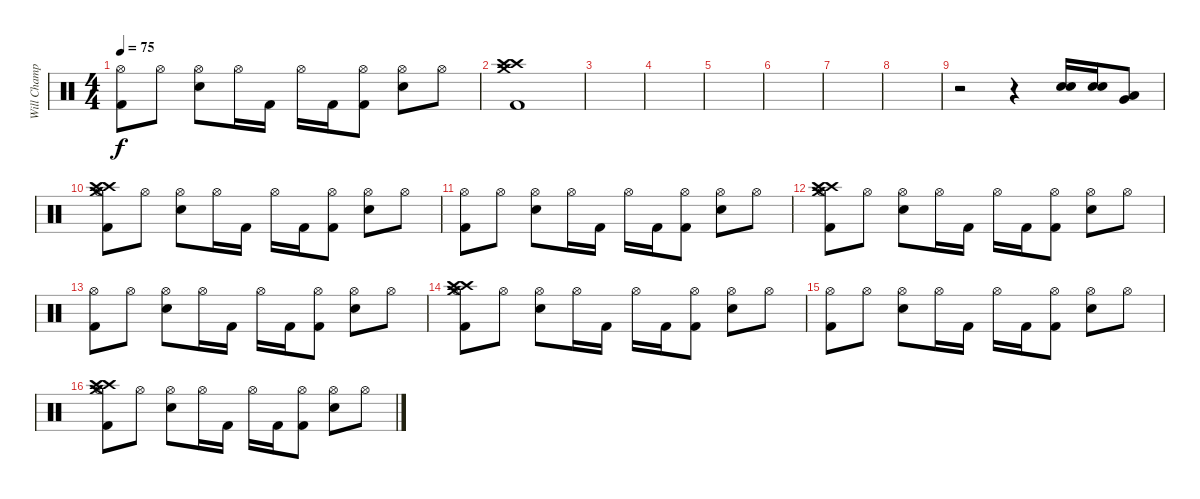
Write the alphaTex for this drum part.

\track ("Will Champion(Drums)" "Will Champ") {instrument percussion}
\staff {score}
\articulation defaults
\ts (4 4)
\tempo 75
\clef neutral
\ks c
("Hi-Hat (open)" "Kick (hit) 2").8{dy f} "Hi-Hat (open)".8 ("Hi-Hat (open)" "Electric Snare (hit)").8 "Hi-Hat (open)".16 "Kick (hit) 2".16 "Hi-Hat (open)".16 "Kick (hit) 2".16 ("Hi-Hat (open)" "Kick (hit) 2").8 ("Hi-Hat (open)" "Electric Snare (hit)").8 "Hi-Hat (open)".8 |
("Crash high (hit)" "Crash high (hit)" "Crash medium (hit)" "Kick (hit) 2").1 |
|
|
|
|
|
|
r.2 r.4 ("Electric Snare (hit)" "Electric Snare (hit)").16 ("Electric Snare (hit)" "Electric Snare (hit)").16 ("Low Tom (hit)" "Very Low Tom (hit)").8 |
("Crash high (hit)" "Crash medium (hit)" "Crash high (hit)" "Hi-Hat (open)" "Kick (hit) 2").8 "Hi-Hat (open)".8 ("Hi-Hat (open)" "Electric Snare (hit)").8 "Hi-Hat (open)".16 "Kick (hit) 2".16 "Hi-Hat (open)".16 "Kick (hit) 2".16 ("Hi-Hat (open)" "Kick (hit) 2").8 ("Hi-Hat (open)" "Electric Snare (hit)").8 "Hi-Hat (open)".8 |
("Hi-Hat (open)" "Kick (hit) 2").8 "Hi-Hat (open)".8 ("Hi-Hat (open)" "Electric Snare (hit)").8 "Hi-Hat (open)".16 "Kick (hit) 2".16 "Hi-Hat (open)".16 "Kick (hit) 2".16 ("Hi-Hat (open)" "Kick (hit) 2").8 ("Hi-Hat (open)" "Electric Snare (hit)").8 "Hi-Hat (open)".8 |
("Crash high (hit)" "Crash medium (hit)" "Crash high (hit)" "Hi-Hat (open)" "Kick (hit) 2").8 "Hi-Hat (open)".8 ("Hi-Hat (open)" "Electric Snare (hit)").8 "Hi-Hat (open)".16 "Kick (hit) 2".16 "Hi-Hat (open)".16 "Kick (hit) 2".16 ("Hi-Hat (open)" "Kick (hit) 2").8 ("Hi-Hat (open)" "Electric Snare (hit)").8 "Hi-Hat (open)".8 |
("Hi-Hat (open)" "Kick (hit) 2").8 "Hi-Hat (open)".8 ("Hi-Hat (open)" "Electric Snare (hit)").8 "Hi-Hat (open)".16 "Kick (hit) 2".16 "Hi-Hat (open)".16 "Kick (hit) 2".16 ("Hi-Hat (open)" "Kick (hit) 2").8 ("Hi-Hat (open)" "Electric Snare (hit)").8 "Hi-Hat (open)".8 |
("Crash high (hit)" "Crash medium (hit)" "Crash high (hit)" "Hi-Hat (open)" "Kick (hit) 2").8 "Hi-Hat (open)".8 ("Hi-Hat (open)" "Electric Snare (hit)").8 "Hi-Hat (open)".16 "Kick (hit) 2".16 "Hi-Hat (open)".16 "Kick (hit) 2".16 ("Hi-Hat (open)" "Kick (hit) 2").8 ("Hi-Hat (open)" "Electric Snare (hit)").8 "Hi-Hat (open)".8 |
("Hi-Hat (open)" "Kick (hit) 2").8 "Hi-Hat (open)".8 ("Hi-Hat (open)" "Electric Snare (hit)").8 "Hi-Hat (open)".16 "Kick (hit) 2".16 "Hi-Hat (open)".16 "Kick (hit) 2".16 ("Hi-Hat (open)" "Kick (hit) 2").8 ("Hi-Hat (open)" "Electric Snare (hit)").8 "Hi-Hat (open)".8 |
("Crash high (hit)" "Crash medium (hit)" "Crash high (hit)" "Hi-Hat (open)" "Kick (hit) 2").8 "Hi-Hat (open)".8 ("Hi-Hat (open)" "Electric Snare (hit)").8 "Hi-Hat (open)".16 "Kick (hit) 2".16 "Hi-Hat (open)".16 "Kick (hit) 2".16 ("Hi-Hat (open)" "Kick (hit) 2").8 ("Hi-Hat (open)" "Electric Snare (hit)").8 "Hi-Hat (open)".8
